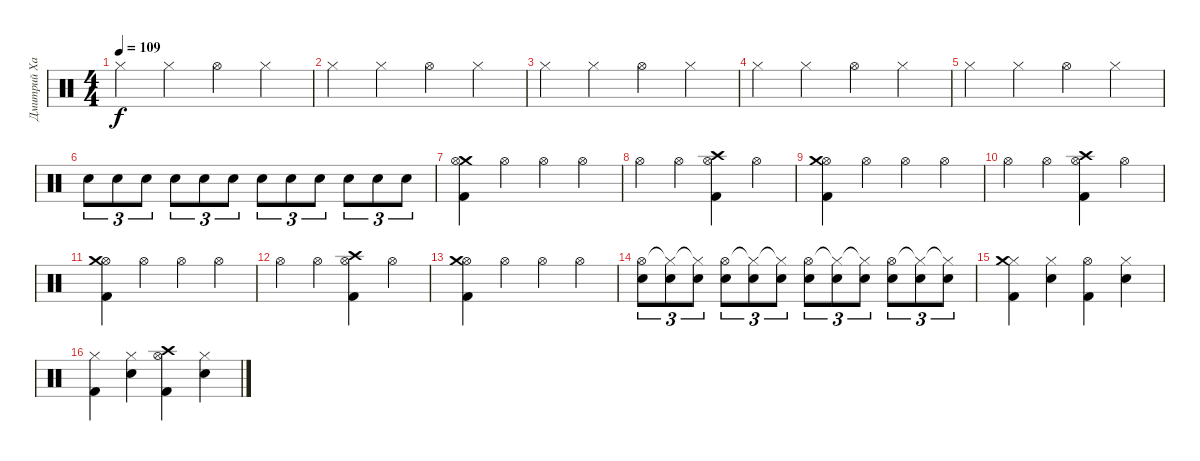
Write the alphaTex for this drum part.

\track ("Дмитрий Хакимов" "Дмитрий Ха") {instrument percussion}
\staff {score}
\articulation defaults
\ts (4 4)
\tempo 109
\clef neutral
\ks c "Hi-Hat (closed)".4{dy f} "Hi-Hat (closed)".4 "Hi-Hat (open)".4 "Hi-Hat (closed)".4
|
"Hi-Hat (closed)".4 "Hi-Hat (closed)".4 "Hi-Hat (open)".4 "Hi-Hat (closed)".4 |
"Hi-Hat (closed)".4 "Hi-Hat (closed)".4 "Hi-Hat (open)".4 "Hi-Hat (closed)".4 |
"Hi-Hat (closed)".4 "Hi-Hat (closed)".4 "Hi-Hat (open)".4 "Hi-Hat (closed)".4 |
"Hi-Hat (closed)".4 "Hi-Hat (closed)".4 "Hi-Hat (open)".4 "Hi-Hat (closed)".4 |
"Snare (hit) 2".8{tu (3 2)} "Snare (hit) 2".8{tu (3 2)} "Snare (hit) 2".8{tu (3 2)} "Snare (hit) 2".8{tu (3 2)} "Snare (hit) 2".8{tu (3 2)} "Snare (hit) 2".8{tu (3 2)} "Snare (hit) 2".8{tu (3 2)} "Snare (hit) 2".8{tu (3 2)} "Snare (hit) 2".8{tu (3 2)} "Snare (hit) 2".8{tu (3 2)} "Snare (hit) 2".8{tu (3 2)} "Snare (hit) 2".8{tu (3 2)} |
("Crash medium (hit)" "Hi-Hat (open)" "Kick (hit) 2").4 "Hi-Hat (open)".4 "Hi-Hat (open)".4 "Hi-Hat (open)".4 |
"Hi-Hat (open)".4 "Hi-Hat (open)".4 ("Kick (hit) 2" "Crash high (hit)" "Hi-Hat (open)").4 "Hi-Hat (open)".4 |
("Hi-Hat (open)" "Crash medium (hit)" "Kick (hit) 2").4 "Hi-Hat (open)".4 "Hi-Hat (open)".4 "Hi-Hat (open)".4 |
"Hi-Hat (open)".4 "Hi-Hat (open)".4 ("Hi-Hat (open)" "Crash high (hit)" "Kick (hit) 2").4 "Hi-Hat (open)".4 |
("Hi-Hat (open)" "Crash medium (hit)" "Kick (hit) 2").4 "Hi-Hat (open)".4 "Hi-Hat (open)".4 "Hi-Hat (open)".4 |
"Hi-Hat (open)".4 "Hi-Hat (open)".4 ("Hi-Hat (open)" "Crash high (hit)" "Kick (hit) 2").4 "Hi-Hat (open)".4 |
("Hi-Hat (open)" "Crash medium (hit)" "Kick (hit) 2").4 "Hi-Hat (open)".4 "Hi-Hat (open)".4 "Hi-Hat (open)".4 |
("Snare (hit) 2" "Hi-Hat (open)").8{tu (3 2)} ("Snare (hit) 2" "Hi-Hat (closed)"{t}).8{tu (3 2)} ("Snare (hit) 2" "Hi-Hat (closed)"{t}).8{tu (3 2)} ("Snare (hit) 2" "Hi-Hat (open)").8{tu (3 2)} ("Snare (hit) 2" "Hi-Hat (closed)"{t}).8{tu (3 2)} ("Snare (hit) 2" "Hi-Hat (closed)"{t}).8{tu (3 2)} ("Snare (hit) 2" "Hi-Hat (open)").8{tu (3 2)} ("Snare (hit) 2" "Hi-Hat (closed)"{t}).8{tu (3 2)} ("Snare (hit) 2" "Hi-Hat (closed)"{t}).8{tu (3 2)} ("Snare (hit) 2" "Hi-Hat (open)").8{tu (3 2)} ("Snare (hit) 2" "Hi-Hat (closed)"{t}).8{tu (3 2)} ("Snare (hit) 2" "Hi-Hat (closed)"{t}).8{tu (3 2)} |
("Hi-Hat (closed)" "Kick (hit) 2" "Crash medium (hit)").4 ("Hi-Hat (closed)" "Snare (hit) 2").4 ("Hi-Hat (open)" "Kick (hit) 2").4 ("Hi-Hat (closed)" "Snare (hit) 2").4 |
("Hi-Hat (closed)" "Kick (hit) 2").4 ("Hi-Hat (closed)" "Snare (hit) 2").4 ("Hi-Hat (open)" "Crash high (hit)" "Kick (hit) 2").4 ("Hi-Hat (closed)" "Snare (hit) 2").4
